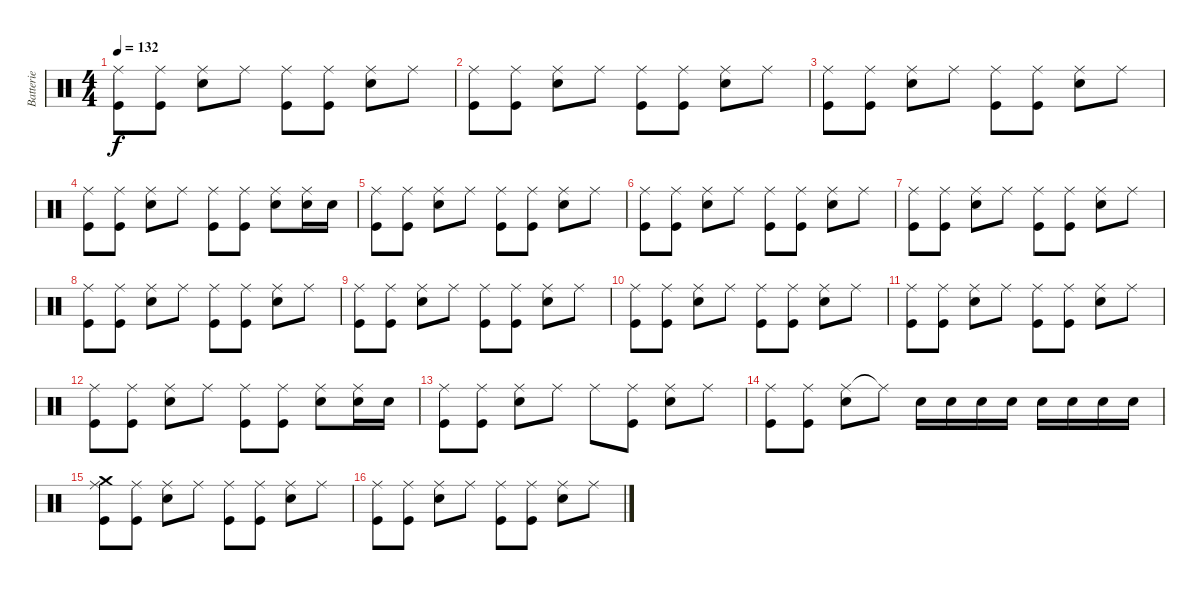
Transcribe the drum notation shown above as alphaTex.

\track ("Batterie" "Batterie") {instrument percussion}
\staff {score}
\articulation defaults
\ts (4 4)
\tempo 132
\clef neutral
\ks c
("Ride (middle)" "Kick (hit)").8{dy f} ("Ride (middle)" "Kick (hit)").8 ("Ride (middle)" "Snare (hit) 2").8 "Ride (middle)".8 ("Ride (middle)" "Kick (hit)").8 ("Ride (middle)" "Kick (hit)").8 ("Ride (middle)" "Snare (hit) 2").8 "Ride (middle)".8 |
("Ride (middle)" "Kick (hit)").8 ("Ride (middle)" "Kick (hit)").8 ("Ride (middle)" "Snare (hit) 2").8 "Ride (middle)".8 ("Ride (middle)" "Kick (hit)").8 ("Ride (middle)" "Kick (hit)").8 ("Ride (middle)" "Snare (hit) 2").8 "Ride (middle)".8 |
("Ride (middle)" "Kick (hit)").8 ("Ride (middle)" "Kick (hit)").8 ("Ride (middle)" "Snare (hit) 2").8 "Ride (middle)".8 ("Ride (middle)" "Kick (hit)").8 ("Ride (middle)" "Kick (hit)").8 ("Ride (middle)" "Snare (hit) 2").8 "Ride (middle)".8 |
("Ride (middle)" "Kick (hit)").8 ("Ride (middle)" "Kick (hit)").8 ("Ride (middle)" "Snare (hit) 2").8 "Ride (middle)".8 ("Ride (middle)" "Kick (hit)").8 ("Ride (middle)" "Kick (hit)").8 ("Ride (middle)" "Snare (hit) 2").8 ("Ride (middle)" "Snare (hit) 2").16 "Snare (hit) 2".16 |
("Ride (middle)" "Kick (hit)").8 ("Ride (middle)" "Kick (hit)").8 ("Ride (middle)" "Snare (hit) 2").8 "Ride (middle)".8 ("Ride (middle)" "Kick (hit)").8 ("Ride (middle)" "Kick (hit)").8 ("Ride (middle)" "Snare (hit) 2").8 "Ride (middle)".8 |
("Ride (middle)" "Kick (hit)").8 ("Ride (middle)" "Kick (hit)").8 ("Ride (middle)" "Snare (hit) 2").8 "Ride (middle)".8 ("Ride (middle)" "Kick (hit)").8 ("Ride (middle)" "Kick (hit)").8 ("Ride (middle)" "Snare (hit) 2").8 "Ride (middle)".8 |
("Ride (middle)" "Kick (hit)").8 ("Ride (middle)" "Kick (hit)").8 ("Ride (middle)" "Snare (hit) 2").8 "Ride (middle)".8 ("Ride (middle)" "Kick (hit)").8 ("Ride (middle)" "Kick (hit)").8 ("Ride (middle)" "Snare (hit) 2").8 "Ride (middle)".8 |
("Ride (middle)" "Kick (hit)").8 ("Ride (middle)" "Kick (hit)").8 ("Ride (middle)" "Snare (hit) 2").8 "Ride (middle)".8 ("Ride (middle)" "Kick (hit)").8 ("Ride (middle)" "Kick (hit)").8 ("Ride (middle)" "Snare (hit) 2").8 "Ride (middle)".8 |
("Ride (middle)" "Kick (hit)").8 ("Ride (middle)" "Kick (hit)").8 ("Ride (middle)" "Snare (hit) 2").8 "Ride (middle)".8 ("Ride (middle)" "Kick (hit)").8 ("Ride (middle)" "Kick (hit)").8 ("Ride (middle)" "Snare (hit) 2").8 "Ride (middle)".8 |
("Ride (middle)" "Kick (hit)").8 ("Ride (middle)" "Kick (hit)").8 ("Ride (middle)" "Snare (hit) 2").8 "Ride (middle)".8 ("Ride (middle)" "Kick (hit)").8 ("Ride (middle)" "Kick (hit)").8 ("Ride (middle)" "Snare (hit) 2").8 "Ride (middle)".8 |
("Ride (middle)" "Kick (hit)").8 ("Ride (middle)" "Kick (hit)").8 ("Ride (middle)" "Snare (hit) 2").8 "Ride (middle)".8 ("Ride (middle)" "Kick (hit)").8 ("Ride (middle)" "Kick (hit)").8 ("Ride (middle)" "Snare (hit) 2").8 "Ride (middle)".8 |
("Ride (middle)" "Kick (hit)").8 ("Ride (middle)" "Kick (hit)").8 ("Ride (middle)" "Snare (hit) 2").8 "Ride (middle)".8 ("Ride (middle)" "Kick (hit)").8 ("Ride (middle)" "Kick (hit)").8 ("Ride (middle)" "Snare (hit) 2").8 ("Ride (middle)" "Snare (hit) 2").16 "Snare (hit) 2".16 |
("Ride (middle)" "Kick (hit)").8 ("Ride (middle)" "Kick (hit)").8 ("Ride (middle)" "Snare (hit) 2").8 "Ride (middle)".8 "Ride (middle)".8 ("Ride (middle)" "Kick (hit)").8 ("Ride (middle)" "Snare (hit) 2").8 "Ride (middle)".8 |
("Ride (middle)" "Kick (hit)").8 ("Ride (middle)" "Kick (hit)").8 ("Ride (middle)" "Snare (hit) 2").8 "Ride (middle)"{t}.8 "Snare (hit) 2".16 "Snare (hit) 2".16 "Snare (hit) 2".16 "Snare (hit) 2".16 "Snare (hit) 2".16 "Snare (hit) 2".16 "Snare (hit) 2".16 "Snare (hit) 2".16 |
("Ride (middle)" "Crash medium (hit)" "Kick (hit)").8 ("Ride (middle)" "Kick (hit)").8 ("Ride (middle)" "Snare (hit) 2").8 "Ride (middle)".8 ("Ride (middle)" "Kick (hit)").8 ("Ride (middle)" "Kick (hit)").8 ("Ride (middle)" "Snare (hit) 2").8 "Ride (middle)".8 |
("Ride (middle)" "Kick (hit)").8 ("Ride (middle)" "Kick (hit)").8 ("Ride (middle)" "Snare (hit) 2").8 "Ride (middle)".8 ("Ride (middle)" "Kick (hit)").8 ("Ride (middle)" "Kick (hit)").8 ("Ride (middle)" "Snare (hit) 2").8 "Ride (middle)".8
